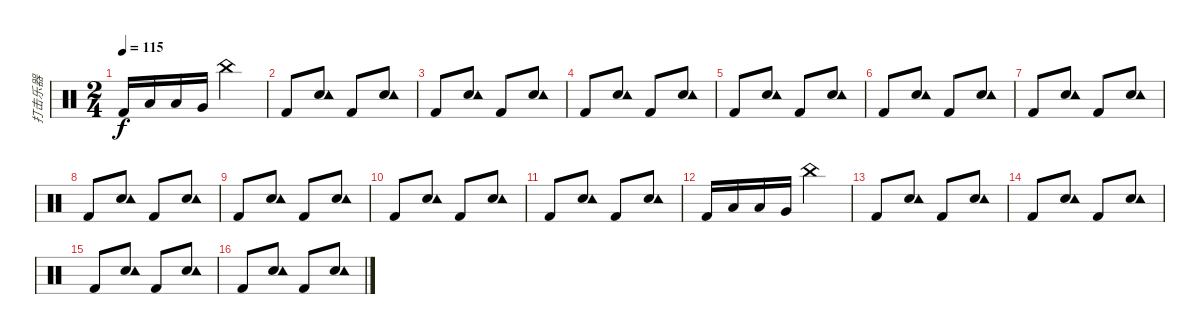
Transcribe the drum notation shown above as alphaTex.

\track ("打击乐器" "打击乐器") {instrument percussion}
\staff {score}
\articulation defaults
\ts (2 4)
\tempo 115
\clef neutral
\ks c "Kick (hit) 2".16{dy f} "Low Floor Tom (hit)".16 "Low Tom (hit)".16 "Very Low Tom (hit)".16 "China (hit)".4
|
"Kick (hit) 2".8 ("Snare (hit) 2" "Tambourine (hit)").8 "Kick (hit) 2".8 ("Snare (hit) 2" "Tambourine (hit)").8 |
"Kick (hit) 2".8 ("Snare (hit) 2" "Tambourine (hit)").8 "Kick (hit) 2".8 ("Snare (hit) 2" "Tambourine (hit)").8 |
"Kick (hit) 2".8 ("Snare (hit) 2" "Tambourine (hit)").8 "Kick (hit) 2".8 ("Snare (hit) 2" "Tambourine (hit)").8 |
"Kick (hit) 2".8 ("Snare (hit) 2" "Tambourine (hit)").8 "Kick (hit) 2".8 ("Snare (hit) 2" "Tambourine (hit)").8 |
"Kick (hit) 2".8 ("Snare (hit) 2" "Tambourine (hit)").8 "Kick (hit) 2".8 ("Snare (hit) 2" "Tambourine (hit)").8 |
"Kick (hit) 2".8 ("Snare (hit) 2" "Tambourine (hit)").8 "Kick (hit) 2".8 ("Snare (hit) 2" "Tambourine (hit)").8 |
"Kick (hit) 2".8 ("Snare (hit) 2" "Tambourine (hit)").8 "Kick (hit) 2".8 ("Snare (hit) 2" "Tambourine (hit)").8 |
"Kick (hit) 2".8 ("Snare (hit) 2" "Tambourine (hit)").8 "Kick (hit) 2".8 ("Snare (hit) 2" "Tambourine (hit)").8 |
"Kick (hit) 2".8 ("Snare (hit) 2" "Tambourine (hit)").8 "Kick (hit) 2".8 ("Snare (hit) 2" "Tambourine (hit)").8 |
"Kick (hit) 2".8 ("Snare (hit) 2" "Tambourine (hit)").8 "Kick (hit) 2".8 ("Snare (hit) 2" "Tambourine (hit)").8 |
"Kick (hit) 2".16 "Low Floor Tom (hit)".16 "Low Tom (hit)".16 "Very Low Tom (hit)".16 "China (hit)".4 |
"Kick (hit) 2".8 ("Snare (hit) 2" "Tambourine (hit)").8 "Kick (hit) 2".8 ("Snare (hit) 2" "Tambourine (hit)").8 |
"Kick (hit) 2".8 ("Snare (hit) 2" "Tambourine (hit)").8 "Kick (hit) 2".8 ("Snare (hit) 2" "Tambourine (hit)").8 |
"Kick (hit) 2".8 ("Snare (hit) 2" "Tambourine (hit)").8 "Kick (hit) 2".8 ("Snare (hit) 2" "Tambourine (hit)").8 |
"Kick (hit) 2".8 ("Snare (hit) 2" "Tambourine (hit)").8 "Kick (hit) 2".8 ("Snare (hit) 2" "Tambourine (hit)").8
